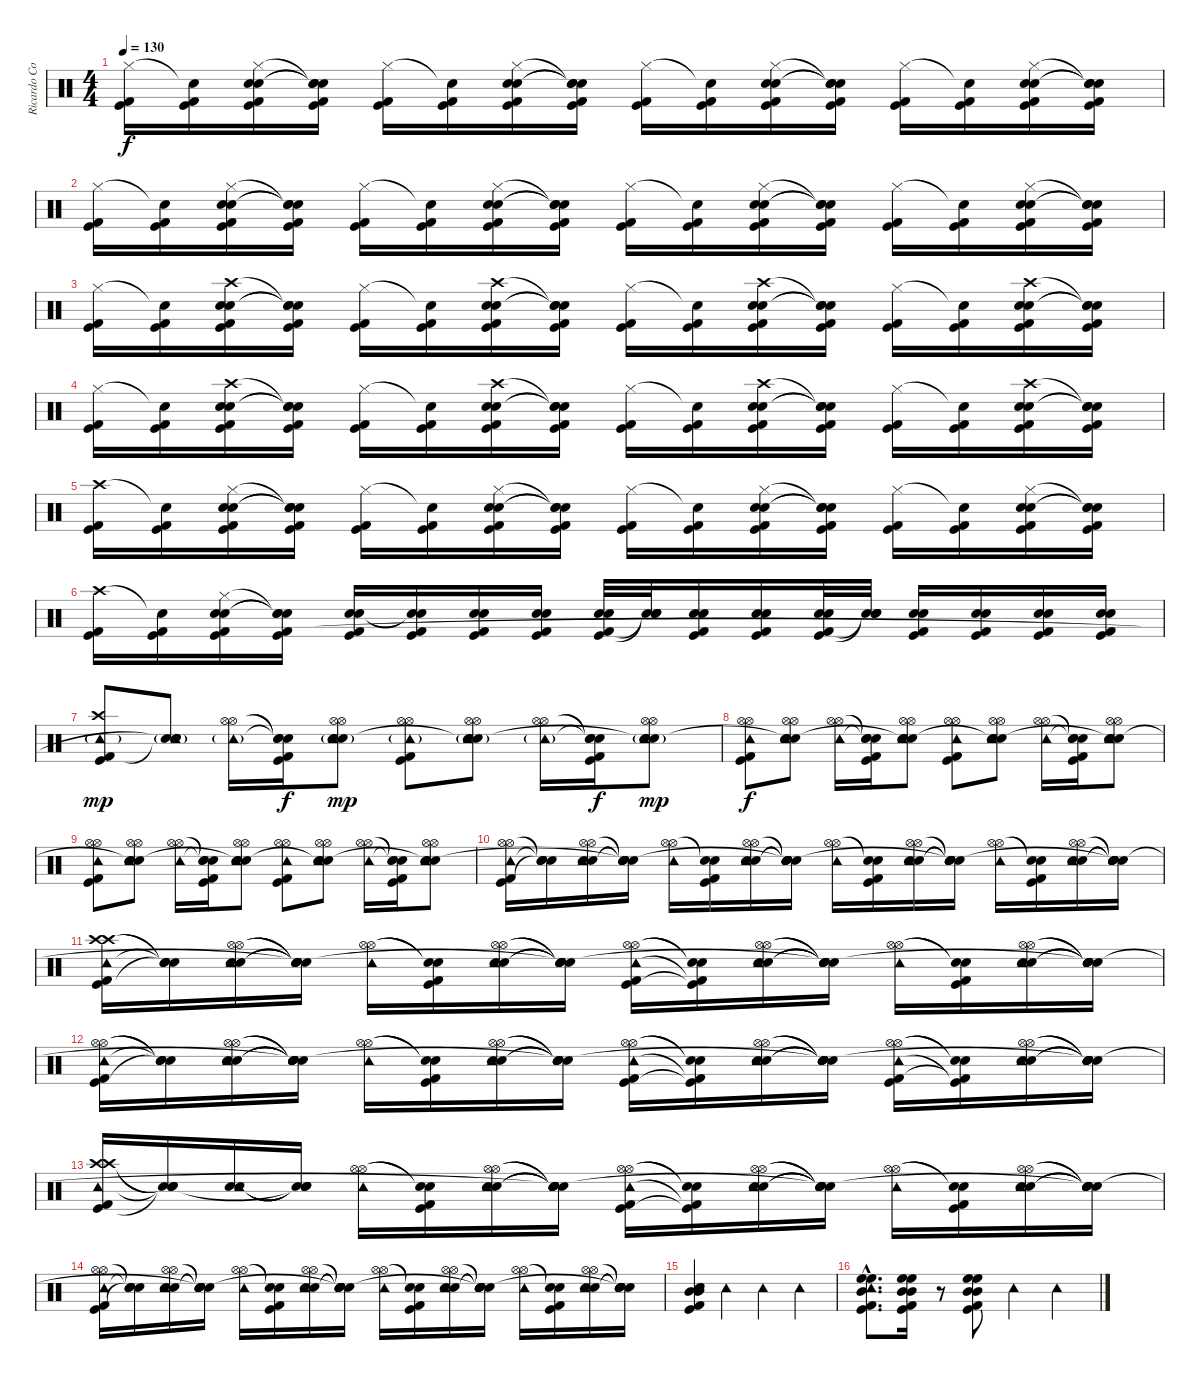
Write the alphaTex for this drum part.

\track ("Ricardo Confessori" "Ricardo Co") {instrument percussion}
\staff {score}
\articulation defaults
\ts (4 4)
\tempo 130
\clef neutral
\ks c
("Hi-Hat (closed)" "Kick (hit) 2" "Kick (hit)").16{dy f} ("Snare (hit)"{t} "Kick (hit) 2" "Kick (hit)").16 ("Hi-Hat (closed)" "Electric Snare (hit)" "Snare (hit) 2" "Kick (hit) 2" "Kick (hit)").16 ("Snare (hit)"{t} "Snare (hit)"{t} "Snare (hit)"{t} "Kick (hit) 2" "Kick (hit)").16 ("Hi-Hat (closed)" "Kick (hit) 2" "Kick (hit)").16 ("Snare (hit)"{t} "Kick (hit) 2" "Kick (hit)").16 ("Hi-Hat (closed)" "Electric Snare (hit)" "Snare (hit) 2" "Kick (hit) 2" "Kick (hit)").16 ("Snare (hit)"{t} "Snare (hit)"{t} "Snare (hit)"{t} "Kick (hit) 2" "Kick (hit)").16 ("Hi-Hat (closed)" "Kick (hit) 2" "Kick (hit)").16 ("Snare (hit)"{t} "Kick (hit) 2" "Kick (hit)").16 ("Hi-Hat (closed)" "Electric Snare (hit)" "Snare (hit) 2" "Kick (hit) 2" "Kick (hit)").16 ("Snare (hit)"{t} "Snare (hit)"{t} "Snare (hit)"{t} "Kick (hit) 2" "Kick (hit)").16 ("Hi-Hat (closed)" "Kick (hit) 2" "Kick (hit)").16 ("Snare (hit)"{t} "Kick (hit) 2" "Kick (hit)").16 ("Hi-Hat (closed)" "Electric Snare (hit)" "Snare (hit) 2" "Kick (hit) 2" "Kick (hit)").16 ("Snare (hit)"{t} "Snare (hit)"{t} "Snare (hit)"{t} "Kick (hit) 2" "Kick (hit)").16 |
("Hi-Hat (closed)" "Kick (hit) 2" "Kick (hit)").16 ("Snare (hit)"{t} "Kick (hit) 2" "Kick (hit)").16 ("Hi-Hat (closed)" "Electric Snare (hit)" "Snare (hit) 2" "Kick (hit) 2" "Kick (hit)").16 ("Snare (hit)"{t} "Snare (hit)"{t} "Snare (hit)"{t} "Kick (hit) 2" "Kick (hit)").16 ("Hi-Hat (closed)" "Kick (hit) 2" "Kick (hit)").16 ("Snare (hit)"{t} "Kick (hit) 2" "Kick (hit)").16 ("Hi-Hat (closed)" "Electric Snare (hit)" "Snare (hit) 2" "Kick (hit) 2" "Kick (hit)").16 ("Snare (hit)"{t} "Snare (hit)"{t} "Snare (hit)"{t} "Kick (hit) 2" "Kick (hit)").16 ("Hi-Hat (closed)" "Kick (hit) 2" "Kick (hit)").16 ("Snare (hit)"{t} "Kick (hit) 2" "Kick (hit)").16 ("Hi-Hat (closed)" "Electric Snare (hit)" "Snare (hit) 2" "Kick (hit) 2" "Kick (hit)").16 ("Snare (hit)"{t} "Snare (hit)"{t} "Snare (hit)"{t} "Kick (hit) 2" "Kick (hit)").16 ("Hi-Hat (closed)" "Kick (hit) 2" "Kick (hit)").16 ("Snare (hit)"{t} "Kick (hit) 2" "Kick (hit)").16 ("Hi-Hat (closed)" "Electric Snare (hit)" "Snare (hit) 2" "Kick (hit) 2" "Kick (hit)").16 ("Snare (hit)"{t} "Snare (hit)"{t} "Snare (hit)"{t} "Kick (hit) 2" "Kick (hit)").16 |
("Hi-Hat (closed)" "Kick (hit) 2" "Kick (hit)").16 ("Snare (hit)"{t} "Kick (hit) 2" "Kick (hit)").16 ("Crash high (hit)" "Electric Snare (hit)" "Snare (hit) 2" "Kick (hit) 2" "Kick (hit)").16 ("Snare (hit)"{t} "Snare (hit)"{t} "Snare (hit)"{t} "Kick (hit) 2" "Kick (hit)").16 ("Hi-Hat (closed)" "Kick (hit) 2" "Kick (hit)").16 ("Snare (hit)"{t} "Kick (hit) 2" "Kick (hit)").16 ("Crash high (hit)" "Electric Snare (hit)" "Snare (hit) 2" "Kick (hit) 2" "Kick (hit)").16 ("Snare (hit)"{t} "Snare (hit)"{t} "Snare (hit)"{t} "Kick (hit) 2" "Kick (hit)").16 ("Hi-Hat (closed)" "Kick (hit) 2" "Kick (hit)").16 ("Snare (hit)"{t} "Kick (hit) 2" "Kick (hit)").16 ("Crash high (hit)" "Electric Snare (hit)" "Snare (hit) 2" "Kick (hit) 2" "Kick (hit)").16 ("Snare (hit)"{t} "Snare (hit)"{t} "Snare (hit)"{t} "Kick (hit) 2" "Kick (hit)").16 ("Hi-Hat (closed)" "Kick (hit) 2" "Kick (hit)").16 ("Snare (hit)"{t} "Kick (hit) 2" "Kick (hit)").16 ("Crash high (hit)" "Electric Snare (hit)" "Snare (hit) 2" "Kick (hit) 2" "Kick (hit)").16 ("Snare (hit)"{t} "Snare (hit)"{t} "Snare (hit)"{t} "Kick (hit) 2" "Kick (hit)").16 |
("Hi-Hat (closed)" "Kick (hit) 2" "Kick (hit)").16 ("Snare (hit)"{t} "Kick (hit) 2" "Kick (hit)").16 ("Crash high (hit)" "Electric Snare (hit)" "Snare (hit) 2" "Kick (hit) 2" "Kick (hit)").16 ("Snare (hit)"{t} "Snare (hit)"{t} "Snare (hit)"{t} "Kick (hit) 2" "Kick (hit)").16 ("Hi-Hat (closed)" "Kick (hit) 2" "Kick (hit)").16 ("Snare (hit)"{t} "Kick (hit) 2" "Kick (hit)").16 ("Crash high (hit)" "Electric Snare (hit)" "Snare (hit) 2" "Kick (hit) 2" "Kick (hit)").16 ("Snare (hit)"{t} "Snare (hit)"{t} "Snare (hit)"{t} "Kick (hit) 2" "Kick (hit)").16 ("Hi-Hat (closed)" "Kick (hit) 2" "Kick (hit)").16 ("Snare (hit)"{t} "Kick (hit) 2" "Kick (hit)").16 ("Crash high (hit)" "Electric Snare (hit)" "Snare (hit) 2" "Kick (hit) 2" "Kick (hit)").16 ("Snare (hit)"{t} "Snare (hit)"{t} "Snare (hit)"{t} "Kick (hit) 2" "Kick (hit)").16 ("Hi-Hat (closed)" "Kick (hit) 2" "Kick (hit)").16 ("Snare (hit)"{t} "Kick (hit) 2" "Kick (hit)").16 ("Crash high (hit)" "Electric Snare (hit)" "Snare (hit) 2" "Kick (hit) 2" "Kick (hit)").16 ("Snare (hit)"{t} "Snare (hit)"{t} "Snare (hit)"{t} "Kick (hit) 2" "Kick (hit)").16 |
("Crash high (hit)" "Kick (hit) 2" "Kick (hit)").16 ("Snare (hit)"{t} "Kick (hit) 2" "Kick (hit)").16 ("Hi-Hat (closed)" "Electric Snare (hit)" "Snare (hit) 2" "Kick (hit) 2" "Kick (hit)").16 ("Snare (hit)"{t} "Snare (hit)"{t} "Snare (hit)"{t} "Kick (hit) 2" "Kick (hit)").16 ("Hi-Hat (closed)" "Kick (hit) 2" "Kick (hit)").16 ("Snare (hit)"{t} "Kick (hit) 2" "Kick (hit)").16 ("Hi-Hat (closed)" "Electric Snare (hit)" "Snare (hit) 2" "Kick (hit) 2" "Kick (hit)").16 ("Snare (hit)"{t} "Snare (hit)"{t} "Snare (hit)"{t} "Kick (hit) 2" "Kick (hit)").16 ("Hi-Hat (closed)" "Kick (hit) 2" "Kick (hit)").16 ("Snare (hit)"{t} "Kick (hit) 2" "Kick (hit)").16 ("Hi-Hat (closed)" "Electric Snare (hit)" "Snare (hit) 2" "Kick (hit) 2" "Kick (hit)").16 ("Snare (hit)"{t} "Snare (hit)"{t} "Snare (hit)"{t} "Kick (hit) 2" "Kick (hit)").16 ("Hi-Hat (closed)" "Kick (hit) 2" "Kick (hit)").16 ("Snare (hit)"{t} "Kick (hit) 2" "Kick (hit)").16 ("Hi-Hat (closed)" "Electric Snare (hit)" "Snare (hit) 2" "Kick (hit) 2" "Kick (hit)").16 ("Snare (hit)"{t} "Snare (hit)"{t} "Snare (hit)"{t} "Kick (hit) 2" "Kick (hit)").16 |
("Crash high (hit)" "Kick (hit)" "Kick (hit) 2").16 ("Snare (hit)"{t} "Kick (hit)" "Kick (hit) 2").16 ("Hi-Hat (closed)" "Electric Snare (hit)" "Snare (hit) 2" "Kick (hit)" "Kick (hit) 2").16 ("Snare (hit)"{t} "Snare (hit)"{t} "Snare (hit)"{t} "Kick (hit)" "Kick (hit) 2").16 ("Electric Snare (hit)" "Snare (hit) 2" "Kick (hit)" "Kick (hit) 2").16 ("Snare (hit)"{t} "Snare (hit)"{t} "Kick (hit)" "Kick (hit) 2").16 ("Electric Snare (hit)" "Snare (hit) 2" "Kick (hit)" "Kick (hit) 2").16 ("Electric Snare (hit)" "Snare (hit) 2" "Kick (hit)" "Kick (hit) 2").16 ("Electric Snare (hit)" "Snare (hit) 2" "Kick (hit)" "Kick (hit) 2").32 ("Electric Snare (hit)" "Snare (hit) 2" "Snare (hit)"{t} "Snare (hit)"{t}).32 ("Electric Snare (hit)" "Snare (hit) 2" "Kick (hit) 2" "Kick (hit)").16 ("Electric Snare (hit)" "Snare (hit) 2" "Kick (hit) 2" "Kick (hit)").16 ("Electric Snare (hit)" "Snare (hit) 2" "Kick (hit) 2" "Kick (hit)").32 ("Electric Snare (hit)" "Snare (hit) 2" "Snare (hit)"{t} "Snare (hit)"{t}).32 ("Electric Snare (hit)" "Snare (hit) 2" "Kick (hit)" "Kick (hit) 2").16 ("Electric Snare (hit)" "Snare (hit) 2" "Kick (hit)" "Kick (hit) 2").16 ("Electric Snare (hit)" "Snare (hit) 2" "Kick (hit)" "Kick (hit) 2").16 ("Electric Snare (hit)" "Snare (hit) 2" "Kick (hit)" "Kick (hit) 2").16 |
("Crash high (hit)" "Tambourine (hit)"{g} "Kick (hit)" "Kick (hit) 2").8{dy mp} ("Electric Snare (hit)" "Snare (hit) 2" "Tambourine (hit)"{g} "Snare (hit)"{t} "Snare (hit)"{t}).8 ("Hi-Hat (open)" "Hi-Hat (open)" "Tambourine (hit)"{g}).16 ("Snare (hit)"{t} "Snare (hit)"{t} "Snare (hit)"{t} "Kick (hit)" "Kick (hit) 2").16{dy f} ("Hi-Hat (open)" "Electric Snare (hit)" "Snare (hit) 2" "Tambourine (hit)"{g} "Hi-Hat (open)" "Snare (hit)").8{dy mp} ("Hi-Hat (open)" "Hi-Hat (open)" "Tambourine (hit)"{g} "Kick (hit)" "Kick (hit) 2").8 ("Hi-Hat (open)" "Electric Snare (hit)" "Snare (hit) 2" "Tambourine (hit)"{g} "Hi-Hat (open)" "Snare (hit)"{t}).8 ("Hi-Hat (open)" "Hi-Hat (open)" "Tambourine (hit)"{g}).16 ("Snare (hit)"{t} "Snare (hit)"{t} "Snare (hit)"{t} "Kick (hit) 2" "Kick (hit)").16{dy f} ("Hi-Hat (open)" "Electric Snare (hit)" "Snare (hit) 2" "Tambourine (hit)"{g} "Hi-Hat (open)" "Snare (hit)"{t}).8{dy mp} |
("Hi-Hat (open)" "Hi-Hat (open)" "Tambourine (hit)" "Kick (hit)" "Kick (hit) 2").8{dy f} ("Hi-Hat (open)" "Electric Snare (hit)" "Snare (hit) 2" "Tambourine (hit)" "Hi-Hat (open)" "Snare (hit)"{t}).8 ("Hi-Hat (open)" "Hi-Hat (open)" "Tambourine (hit)").16 ("Snare (hit)"{t} "Snare (hit)"{t} "Snare (hit)"{t} "Kick (hit)" "Kick (hit) 2").16 ("Hi-Hat (open)" "Electric Snare (hit)" "Snare (hit) 2" "Tambourine (hit)" "Hi-Hat (open)" "Snare (hit)"{t}).8 ("Hi-Hat (open)" "Hi-Hat (open)" "Tambourine (hit)" "Kick (hit)" "Kick (hit) 2").8 ("Hi-Hat (open)" "Electric Snare (hit)" "Snare (hit) 2" "Tambourine (hit)" "Hi-Hat (open)" "Snare (hit)"{t}).8 ("Hi-Hat (open)" "Hi-Hat (open)" "Tambourine (hit)").16 ("Snare (hit)"{t} "Snare (hit)"{t} "Snare (hit)"{t} "Kick (hit) 2" "Kick (hit)").16 ("Hi-Hat (open)" "Electric Snare (hit)" "Snare (hit) 2" "Tambourine (hit)" "Hi-Hat (open)" "Snare (hit)"{t}).8 |
("Hi-Hat (open)" "Hi-Hat (open)" "Tambourine (hit)" "Kick (hit)" "Kick (hit) 2").8 ("Hi-Hat (open)" "Electric Snare (hit)" "Snare (hit) 2" "Tambourine (hit)" "Hi-Hat (open)" "Snare (hit)"{t}).8 ("Hi-Hat (open)" "Hi-Hat (open)" "Tambourine (hit)").16 ("Snare (hit)"{t} "Snare (hit)"{t} "Snare (hit)"{t} "Kick (hit)" "Kick (hit) 2").16 ("Hi-Hat (open)" "Electric Snare (hit)" "Snare (hit) 2" "Tambourine (hit)" "Hi-Hat (open)" "Snare (hit)"{t}).8 ("Hi-Hat (open)" "Hi-Hat (open)" "Tambourine (hit)" "Kick (hit)" "Kick (hit) 2").8 ("Hi-Hat (open)" "Electric Snare (hit)" "Snare (hit) 2" "Tambourine (hit)" "Hi-Hat (open)" "Snare (hit)"{t}).8 ("Hi-Hat (open)" "Hi-Hat (open)" "Tambourine (hit)").16 ("Snare (hit)"{t} "Snare (hit)"{t} "Snare (hit)"{t} "Kick (hit) 2" "Kick (hit)").16 ("Hi-Hat (open)" "Electric Snare (hit)" "Snare (hit) 2" "Tambourine (hit)" "Hi-Hat (open)" "Snare (hit)"{t}).8 |
("Hi-Hat (open)" "Hi-Hat (open)" "Tambourine (hit)" "Kick (hit)" "Kick (hit) 2").16 ("Snare (hit)"{t} "Snare (hit)"{t} "Snare (hit)"{t} "Snare (hit)"{t}).16 ("Hi-Hat (open)" "Hi-Hat (open)" "Electric Snare (hit)" "Snare (hit) 2" "Tambourine (hit)").16 ("Snare (hit)"{t} "Snare (hit)"{t} "Snare (hit)"{t} "Snare (hit)"{t} "Snare (hit)"{t} "Snare (hit)"{t}).16 ("Hi-Hat (open)" "Hi-Hat (open)" "Tambourine (hit)").16 ("Snare (hit)"{t} "Snare (hit)"{t} "Kick (hit)" "Kick (hit) 2").16 ("Hi-Hat (open)" "Hi-Hat (open)" "Electric Snare (hit)" "Snare (hit) 2" "Tambourine (hit)").16 ("Snare (hit)"{t} "Snare (hit)"{t} "Snare (hit)"{t} "Snare (hit)"{t} "Snare (hit)"{t} "Snare (hit)"{t}).16 ("Hi-Hat (open)" "Hi-Hat (open)" "Tambourine (hit)").16 ("Snare (hit)"{t} "Snare (hit)"{t} "Kick (hit) 2" "Kick (hit)").16 ("Hi-Hat (open)" "Electric Snare (hit)" "Snare (hit) 2" "Hi-Hat (open)" "Tambourine (hit)").16 ("Snare (hit)"{t} "Snare (hit)"{t} "Snare (hit)"{t} "Snare (hit)"{t} "Snare (hit)"{t} "Snare (hit)"{t}).16 ("Hi-Hat (open)" "Hi-Hat (open)" "Tambourine (hit)").16 ("Snare (hit)"{t} "Snare (hit)"{t} "Kick (hit)" "Kick (hit) 2").16 ("Hi-Hat (open)" "Hi-Hat (open)" "Electric Snare (hit)" "Snare (hit) 2" "Tambourine (hit)").16 ("Snare (hit)"{t} "Snare (hit)"{t} "Snare (hit)"{t} "Snare (hit)"{t} "Snare (hit)"{t} "Snare (hit)"{t}).16 |
("Crash high (hit)" "Crash high (hit)" "Tambourine (hit)" "Kick (hit)" "Kick (hit) 2").16 ("Snare (hit)"{t} "Snare (hit)"{t} "Snare (hit)"{t} "Snare (hit)"{t}).16 ("Hi-Hat (open)" "Hi-Hat (open)" "Electric Snare (hit)" "Snare (hit) 2" "Tambourine (hit)").16 ("Snare (hit)"{t} "Snare (hit)"{t} "Snare (hit)"{t} "Snare (hit)"{t} "Snare (hit)"{t} "Snare (hit)"{t}).16 ("Hi-Hat (open)" "Hi-Hat (open)" "Tambourine (hit)").16 ("Snare (hit)"{t} "Snare (hit)"{t} "Kick (hit)" "Kick (hit) 2").16 ("Hi-Hat (open)" "Hi-Hat (open)" "Electric Snare (hit)" "Snare (hit) 2" "Tambourine (hit)").16 ("Snare (hit)"{t} "Snare (hit)"{t} "Snare (hit)"{t} "Snare (hit)"{t} "Snare (hit)"{t} "Snare (hit)"{t}).16 ("Hi-Hat (open)" "Hi-Hat (open)" "Tambourine (hit)" "Kick (hit)" "Kick (hit) 2").16 ("Snare (hit)"{t} "Snare (hit)"{t} "Kick (hit) 2"{t} "Kick (hit)"{t}).16 ("Hi-Hat (open)" "Electric Snare (hit)" "Snare (hit) 2" "Hi-Hat (open)" "Tambourine (hit)").16 ("Snare (hit)"{t} "Snare (hit)"{t} "Snare (hit)"{t} "Snare (hit)"{t} "Snare (hit)"{t} "Snare (hit)"{t}).16 ("Hi-Hat (open)" "Hi-Hat (open)" "Tambourine (hit)").16 ("Snare (hit)"{t} "Snare (hit)"{t} "Kick (hit)" "Kick (hit) 2").16 ("Hi-Hat (open)" "Hi-Hat (open)" "Electric Snare (hit)" "Snare (hit) 2" "Tambourine (hit)").16 ("Snare (hit)"{t} "Snare (hit)"{t} "Snare (hit)"{t} "Snare (hit)"{t} "Snare (hit)"{t} "Snare (hit)"{t}).16 |
("Hi-Hat (open)" "Hi-Hat (open)" "Tambourine (hit)" "Kick (hit)" "Kick (hit) 2").16 ("Snare (hit)"{t} "Snare (hit)"{t} "Snare (hit)"{t} "Snare (hit)"{t}).16 ("Hi-Hat (open)" "Hi-Hat (open)" "Electric Snare (hit)" "Snare (hit) 2" "Tambourine (hit)").16 ("Snare (hit)"{t} "Snare (hit)"{t} "Snare (hit)"{t} "Snare (hit)"{t} "Snare (hit)"{t} "Snare (hit)"{t}).16 ("Hi-Hat (open)" "Hi-Hat (open)" "Tambourine (hit)").16 ("Snare (hit)"{t} "Snare (hit)"{t} "Kick (hit)" "Kick (hit) 2").16 ("Hi-Hat (open)" "Hi-Hat (open)" "Electric Snare (hit)" "Snare (hit) 2" "Tambourine (hit)").16 ("Snare (hit)"{t} "Snare (hit)"{t} "Snare (hit)"{t} "Snare (hit)"{t} "Snare (hit)"{t} "Snare (hit)"{t}).16 ("Hi-Hat (open)" "Hi-Hat (open)" "Tambourine (hit)" "Kick (hit)" "Kick (hit) 2").16 ("Snare (hit)"{t} "Snare (hit)"{t} "Kick (hit) 2"{t} "Kick (hit)"{t}).16 ("Hi-Hat (open)" "Electric Snare (hit)" "Snare (hit) 2" "Hi-Hat (open)" "Tambourine (hit)").16 ("Snare (hit)"{t} "Snare (hit)"{t} "Snare (hit)"{t} "Snare (hit)"{t} "Snare (hit)"{t} "Snare (hit)"{t}).16 ("Hi-Hat (open)" "Hi-Hat (open)" "Tambourine (hit)" "Kick (hit) 2" "Kick (hit)").16 ("Snare (hit)"{t} "Snare (hit)"{t} "Kick (hit)"{t} "Kick (hit) 2"{t}).16 ("Hi-Hat (open)" "Hi-Hat (open)" "Electric Snare (hit)" "Snare (hit) 2" "Tambourine (hit)").16 ("Snare (hit)"{t} "Snare (hit)"{t} "Snare (hit)"{t} "Snare (hit)"{t} "Snare (hit)"{t} "Snare (hit)"{t}).16 |
("Crash high (hit)" "Crash high (hit)" "Tambourine (hit)" "Kick (hit)" "Kick (hit) 2").16 ("Snare (hit)"{t} "Snare (hit)"{t} "Snare (hit)"{t} "Snare (hit)"{t}).16 ("Electric Snare (hit)" "Snare (hit) 2" "Tambourine (hit)").16 ("Snare (hit)"{t} "Snare (hit)"{t} "Snare (hit)"{t} "Snare (hit)"{t}).16 ("Hi-Hat (open)" "Hi-Hat (open)" "Tambourine (hit)").16 ("Snare (hit)"{t} "Snare (hit)"{t} "Kick (hit)" "Kick (hit) 2").16 ("Hi-Hat (open)" "Hi-Hat (open)" "Electric Snare (hit)" "Snare (hit) 2" "Tambourine (hit)").16 ("Snare (hit)"{t} "Snare (hit)"{t} "Snare (hit)"{t} "Snare (hit)"{t} "Snare (hit)"{t} "Snare (hit)"{t}).16 ("Hi-Hat (open)" "Hi-Hat (open)" "Tambourine (hit)" "Kick (hit)" "Kick (hit) 2").16 ("Snare (hit)"{t} "Snare (hit)"{t} "Kick (hit) 2"{t} "Kick (hit)"{t}).16 ("Hi-Hat (open)" "Electric Snare (hit)" "Snare (hit) 2" "Hi-Hat (open)" "Tambourine (hit)").16 ("Snare (hit)"{t} "Snare (hit)"{t} "Snare (hit)"{t} "Snare (hit)"{t} "Snare (hit)"{t} "Snare (hit)"{t}).16 ("Hi-Hat (open)" "Hi-Hat (open)" "Tambourine (hit)").16 ("Snare (hit)"{t} "Snare (hit)"{t} "Kick (hit) 2" "Kick (hit)").16 ("Hi-Hat (open)" "Hi-Hat (open)" "Electric Snare (hit)" "Snare (hit) 2" "Tambourine (hit)").16 ("Snare (hit)"{t} "Snare (hit)"{t} "Snare (hit)"{t} "Snare (hit)"{t} "Snare (hit)"{t} "Snare (hit)"{t}).16 |
("Hi-Hat (open)" "Hi-Hat (open)" "Tambourine (hit)" "Kick (hit)" "Kick (hit) 2").16 ("Snare (hit)"{t} "Snare (hit)"{t} "Snare (hit)"{t} "Snare (hit)"{t}).16 ("Hi-Hat (open)" "Hi-Hat (open)" "Electric Snare (hit)" "Snare (hit) 2" "Tambourine (hit)").16 ("Snare (hit)"{t} "Snare (hit)"{t} "Snare (hit)"{t} "Snare (hit)"{t} "Snare (hit)"{t} "Snare (hit)"{t}).16 ("Hi-Hat (open)" "Hi-Hat (open)" "Tambourine (hit)").16 ("Snare (hit)"{t} "Snare (hit)"{t} "Kick (hit)" "Kick (hit) 2").16 ("Hi-Hat (open)" "Hi-Hat (open)" "Electric Snare (hit)" "Snare (hit) 2" "Tambourine (hit)").16 ("Snare (hit)"{t} "Snare (hit)"{t} "Snare (hit)"{t} "Snare (hit)"{t} "Snare (hit)"{t} "Snare (hit)"{t}).16 ("Hi-Hat (open)" "Hi-Hat (open)" "Tambourine (hit)").16 ("Snare (hit)"{t} "Snare (hit)"{t} "Kick (hit) 2" "Kick (hit)").16 ("Hi-Hat (open)" "Electric Snare (hit)" "Snare (hit) 2" "Hi-Hat (open)" "Tambourine (hit)").16 ("Snare (hit)"{t} "Snare (hit)"{t} "Snare (hit)"{t} "Snare (hit)"{t} "Snare (hit)"{t} "Snare (hit)"{t}).16 ("Hi-Hat (open)" "Hi-Hat (open)" "Tambourine (hit)").16 ("Snare (hit)"{t} "Snare (hit)"{t} "Kick (hit) 2" "Kick (hit)").16 ("Hi-Hat (open)" "Hi-Hat (open)" "Electric Snare (hit)" "Snare (hit) 2" "Tambourine (hit)").16 ("Snare (hit)"{t} "Snare (hit)"{t} "Snare (hit)"{t} "Snare (hit)"{t} "Snare (hit)"{t} "Snare (hit)"{t}).16 |
("Mid Tom (hit)" "Electric Snare (hit)" "Snare (hit) 2" "Mid Tom (hit)" "Kick (hit)" "Kick (hit) 2").4 "Tambourine (hit)".4 "Tambourine (hit)".4 "Tambourine (hit)".4 |
("High Floor Tom (hit)"{hac} "High Floor Tom (hit)"{hac} "Mid Tom (hit)"{hac} "Tambourine (hit)"{hac} "Kick (hit)"{hac} "Kick (hit) 2"{hac}).8{d} ("High Floor Tom (hit)" "High Floor Tom (hit)" "Mid Tom (hit)" "Mid Tom (hit)" "Kick (hit)" "Kick (hit) 2").16 r.8 ("High Floor Tom (hit)" "High Floor Tom (hit)" "Mid Tom (hit)" "Mid Tom (hit)" "Kick (hit)" "Kick (hit) 2").8 "Tambourine (hit)".4 "Tambourine (hit)".4
